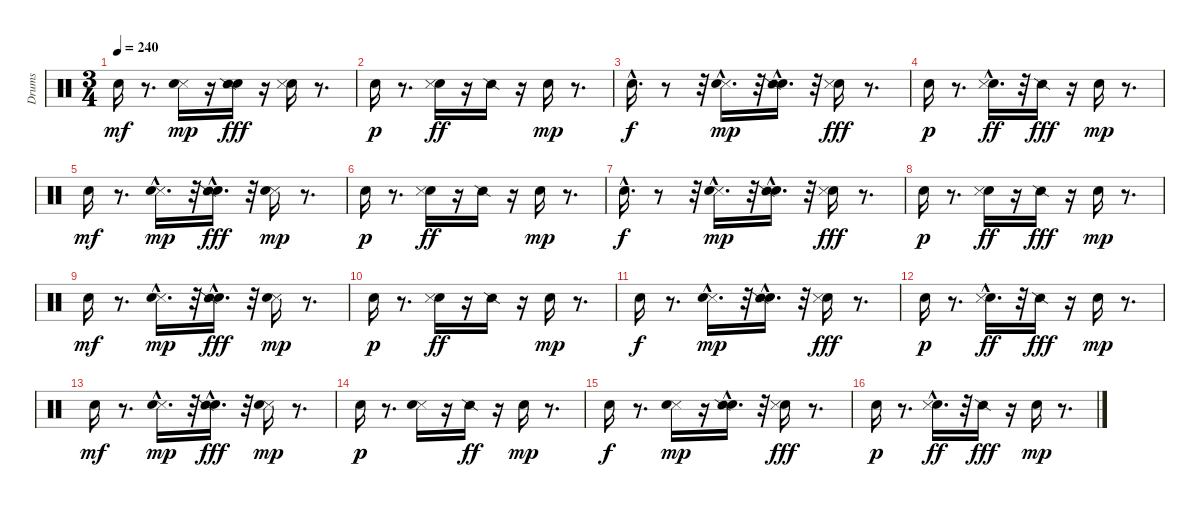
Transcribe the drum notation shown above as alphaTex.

\track ("Drums" "Drums") {instrument percussion}
\staff {score}
\articulation defaults
\ts (3 4)
\tempo 240
\clef neutral
\ks c "Electric Snare (hit)".16{dy mf}
r.8{d} ("Snare (side stick) 3" "Electric Snare (hit)").16{dy mp} r.16 ("Electric Snare (hit)" "Snare (side stick) 2").16{dy fff} r.16 ("Electric Snare (hit)" "Snare (side stick) 3").16 r.8{d} |
"Electric Snare (hit)".16{dy p} r.8{d} ("Electric Snare (hit)" "Snare (side stick) 3").16{dy ff} r.16 "Snare (side stick) 2".16 r.16 "Electric Snare (hit)".16{dy mp} r.8{d} |
"Electric Snare (hit)"{hac}.16{d dy f} r.8 r.32 ("Snare (side stick) 3"{hac} "Electric Snare (hit)").16{d dy mp} r.32 ("Electric Snare (hit)" "Snare (side stick) 2"{hac}).16{d} r.32 ("Electric Snare (hit)" "Snare (side stick) 3").16{dy fff} r.8{d} |
"Electric Snare (hit)".16{dy p} r.8{d} ("Electric Snare (hit)" "Snare (side stick) 3"{hac}).16{d dy ff} r.32 "Snare (side stick) 2".16{dy fff} r.16 "Electric Snare (hit)".16{dy mp} r.8{d} |
"Electric Snare (hit)".16{dy mf} r.8{d} ("Snare (side stick) 3"{hac} "Electric Snare (hit)").16{d dy mp} r.32 ("Electric Snare (hit)" "Snare (side stick) 2"{hac}).16{d dy fff} r.32 ("Snare (side stick) 3" "Electric Snare (hit)").16{dy mp} r.8{d} |
"Electric Snare (hit)".16{dy p} r.8{d} ("Electric Snare (hit)" "Snare (side stick) 3").16{dy ff} r.16 "Snare (side stick) 2".16 r.16 "Electric Snare (hit)".16{dy mp} r.8{d} |
"Electric Snare (hit)"{hac}.16{d dy f} r.8 r.32 ("Snare (side stick) 3"{hac} "Electric Snare (hit)").16{d dy mp} r.32 ("Electric Snare (hit)" "Snare (side stick) 2"{hac}).16{d} r.32 ("Electric Snare (hit)" "Snare (side stick) 3").16{dy fff} r.8{d} |
"Electric Snare (hit)".16{dy p} r.8{d} ("Electric Snare (hit)" "Snare (side stick) 3").16{dy ff} r.16 "Snare (side stick) 2".16{dy fff} r.16 "Electric Snare (hit)".16{dy mp} r.8{d} |
"Electric Snare (hit)".16{dy mf} r.8{d} ("Snare (side stick) 3"{hac} "Electric Snare (hit)").16{d dy mp} r.32 ("Electric Snare (hit)" "Snare (side stick) 2"{hac}).16{d dy fff} r.32 ("Snare (side stick) 3" "Electric Snare (hit)").16{dy mp} r.8{d} |
"Electric Snare (hit)".16{dy p} r.8{d} ("Electric Snare (hit)" "Snare (side stick) 3").16{dy ff} r.16 "Snare (side stick) 2".16 r.16 "Electric Snare (hit)".16{dy mp} r.8{d} |
"Electric Snare (hit)".16{dy f} r.8{d} ("Snare (side stick) 3"{hac} "Electric Snare (hit)").16{d dy mp} r.32 ("Electric Snare (hit)" "Snare (side stick) 2"{hac}).16{d} r.32 ("Electric Snare (hit)" "Snare (side stick) 3").16{dy fff} r.8{d} |
"Electric Snare (hit)".16{dy p} r.8{d} ("Electric Snare (hit)" "Snare (side stick) 3"{hac}).16{d dy ff} r.32 "Snare (side stick) 2".16{dy fff} r.16 "Electric Snare (hit)".16{dy mp} r.8{d} |
"Electric Snare (hit)".16{dy mf} r.8{d} ("Snare (side stick) 3"{hac} "Electric Snare (hit)").16{d dy mp} r.32 ("Electric Snare (hit)" "Snare (side stick) 2"{hac}).16{d dy fff} r.32 ("Snare (side stick) 3" "Electric Snare (hit)").16{dy mp} r.8{d} |
"Electric Snare (hit)".16{dy p} r.8{d} ("Snare (side stick) 3" "Electric Snare (hit)").16 r.16 "Snare (side stick) 2".16{dy ff} r.16 "Electric Snare (hit)".16{dy mp} r.8{d} |
"Electric Snare (hit)".16{dy f} r.8{d} ("Snare (side stick) 3" "Electric Snare (hit)").16{dy mp} r.16 ("Electric Snare (hit)" "Snare (side stick) 2"{hac}).16{d} r.32 ("Electric Snare (hit)" "Snare (side stick) 3").16{dy fff} r.8{d} |
"Electric Snare (hit)".16{dy p} r.8{d} ("Electric Snare (hit)" "Snare (side stick) 3"{hac}).16{d dy ff} r.32 "Snare (side stick) 2".16{dy fff} r.16 "Electric Snare (hit)".16{dy mp} r.8{d}
